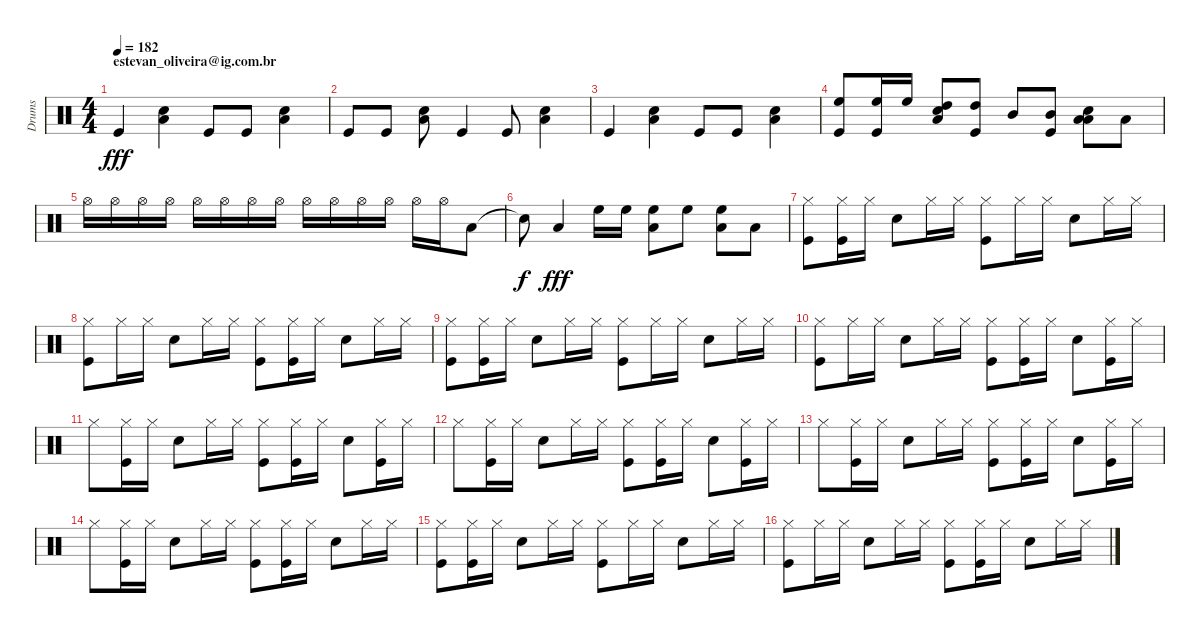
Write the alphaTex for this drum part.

\track ("Drums" "Drums") {instrument percussion}
\staff {score}
\articulation defaults
\ts (4 4)
\section ("" "estevan_oliveira@ig.com.br")
\tempo 182
\clef neutral
\ks c "Kick (hit)".4{dy fff}
("Snare (hit) 2" "Low Floor Tom (hit)").4 "Kick (hit)".8 "Kick (hit)".8 ("Snare (hit) 2" "Low Floor Tom (hit)").4 |
"Kick (hit)".8 "Kick (hit)".8 ("Snare (hit) 2" "Low Floor Tom (hit)").8 "Kick (hit)".4 "Kick (hit)".8 ("Low Floor Tom (hit)" "Snare (hit) 2").4 |
"Kick (hit)".4 ("Snare (hit) 2" "Low Floor Tom (hit)").4 "Kick (hit)".8 "Kick (hit)".8 ("Low Floor Tom (hit)" "Snare (hit) 2").4 |
("High Floor Tom (hit)" "Kick (hit)").8 ("High Floor Tom (hit)" "Kick (hit)").16 "High Floor Tom (hit)".16 ("High Tom (hit)" "Low Floor Tom (hit)" "Snare (hit) 2").8 ("High Tom (hit)" "Kick (hit)").8 "Mid Tom (hit)".8 ("Mid Tom (hit)" "Kick (hit)").8 ("Low Tom (hit)" "Low Floor Tom (hit)" "Snare (hit) 2").8 "Low Tom (hit)".8 |
"Hi-Hat (open)".16 "Hi-Hat (open)".16 "Hi-Hat (open)".16 "Hi-Hat (open)".16 "Hi-Hat (open)".16 "Hi-Hat (open)".16 "Hi-Hat (open)".16 "Hi-Hat (open)".16 "Hi-Hat (open)".16 "Hi-Hat (open)".16 "Hi-Hat (open)".16 "Hi-Hat (open)".16 "Hi-Hat (open)".16 "Hi-Hat (open)".16 "Low Floor Tom (hit)".8 |
"Snare (hit)"{t}.8{dy f} "Low Floor Tom (hit)".4{dy fff} "High Floor Tom (hit)".16 "High Floor Tom (hit)".16 ("High Floor Tom (hit)" "Low Floor Tom (hit)").8 "High Floor Tom (hit)".8 ("High Floor Tom (hit)" "Low Floor Tom (hit)").8 "Low Floor Tom (hit)".8 |
("Hi-Hat (closed)" "Kick (hit)").8 ("Hi-Hat (closed)" "Kick (hit)").16 "Hi-Hat (closed)".16 "Snare (hit) 2".8 "Hi-Hat (closed)".16 "Hi-Hat (closed)".16 ("Hi-Hat (closed)" "Kick (hit)").8 "Hi-Hat (closed)".16 "Hi-Hat (closed)".16 "Snare (hit) 2".8 "Hi-Hat (closed)".16 "Hi-Hat (closed)".16 |
("Hi-Hat (closed)" "Kick (hit)").8 "Hi-Hat (closed)".16 "Hi-Hat (closed)".16 "Snare (hit) 2".8 "Hi-Hat (closed)".16 "Hi-Hat (closed)".16 ("Hi-Hat (closed)" "Kick (hit)").8 ("Hi-Hat (closed)" "Kick (hit)").16 "Hi-Hat (closed)".16 "Snare (hit) 2".8 "Hi-Hat (closed)".16 "Hi-Hat (closed)".16 |
("Hi-Hat (closed)" "Kick (hit)").8 ("Hi-Hat (closed)" "Kick (hit)").16 "Hi-Hat (closed)".16 "Snare (hit) 2".8 "Hi-Hat (closed)".16 "Hi-Hat (closed)".16 ("Hi-Hat (closed)" "Kick (hit)").8 "Hi-Hat (closed)".16 "Hi-Hat (closed)".16 "Snare (hit) 2".8 "Hi-Hat (closed)".16 "Hi-Hat (closed)".16 |
("Hi-Hat (closed)" "Kick (hit)").8 "Hi-Hat (closed)".16 "Hi-Hat (closed)".16 "Snare (hit) 2".8 "Hi-Hat (closed)".16 "Hi-Hat (closed)".16 ("Hi-Hat (closed)" "Kick (hit)").8 ("Hi-Hat (closed)" "Kick (hit)").16 "Hi-Hat (closed)".16 "Snare (hit) 2".8 ("Hi-Hat (closed)" "Kick (hit)").16 "Hi-Hat (closed)".16 |
"Hi-Hat (closed)".8 ("Hi-Hat (closed)" "Kick (hit)").16 "Hi-Hat (closed)".16 "Snare (hit) 2".8 "Hi-Hat (closed)".16 "Hi-Hat (closed)".16 ("Hi-Hat (closed)" "Kick (hit)").8 ("Hi-Hat (closed)" "Kick (hit)").16 "Hi-Hat (closed)".16 "Snare (hit) 2".8 ("Hi-Hat (closed)" "Kick (hit)").16 "Hi-Hat (closed)".16 |
"Hi-Hat (closed)".8 ("Hi-Hat (closed)" "Kick (hit)").16 "Hi-Hat (closed)".16 "Snare (hit) 2".8 "Hi-Hat (closed)".16 "Hi-Hat (closed)".16 ("Hi-Hat (closed)" "Kick (hit)").8 ("Hi-Hat (closed)" "Kick (hit)").16 "Hi-Hat (closed)".16 "Snare (hit) 2".8 ("Hi-Hat (closed)" "Kick (hit)").16 "Hi-Hat (closed)".16 |
"Hi-Hat (closed)".8 ("Hi-Hat (closed)" "Kick (hit)").16 "Hi-Hat (closed)".16 "Snare (hit) 2".8 "Hi-Hat (closed)".16 "Hi-Hat (closed)".16 ("Hi-Hat (closed)" "Kick (hit)").8 ("Hi-Hat (closed)" "Kick (hit)").16 "Hi-Hat (closed)".16 "Snare (hit) 2".8 ("Hi-Hat (closed)" "Kick (hit)").16 "Hi-Hat (closed)".16 |
"Hi-Hat (closed)".8 ("Hi-Hat (closed)" "Kick (hit)").16 "Hi-Hat (closed)".16 "Snare (hit) 2".8 "Hi-Hat (closed)".16 "Hi-Hat (closed)".16 ("Hi-Hat (closed)" "Kick (hit)").8 ("Hi-Hat (closed)" "Kick (hit)").16 "Hi-Hat (closed)".16 "Snare (hit) 2".8 "Hi-Hat (closed)".16 "Hi-Hat (closed)".16 |
("Hi-Hat (closed)" "Kick (hit)").8 ("Hi-Hat (closed)" "Kick (hit)").16 "Hi-Hat (closed)".16 "Snare (hit) 2".8 "Hi-Hat (closed)".16 "Hi-Hat (closed)".16 ("Hi-Hat (closed)" "Kick (hit)").8 "Hi-Hat (closed)".16 "Hi-Hat (closed)".16 "Snare (hit) 2".8 "Hi-Hat (closed)".16 "Hi-Hat (closed)".16 |
("Hi-Hat (closed)" "Kick (hit)").8 "Hi-Hat (closed)".16 "Hi-Hat (closed)".16 "Snare (hit) 2".8 "Hi-Hat (closed)".16 "Hi-Hat (closed)".16 ("Hi-Hat (closed)" "Kick (hit)").8 ("Hi-Hat (closed)" "Kick (hit)").16 "Hi-Hat (closed)".16 "Snare (hit) 2".8 "Hi-Hat (closed)".16 "Hi-Hat (closed)".16
